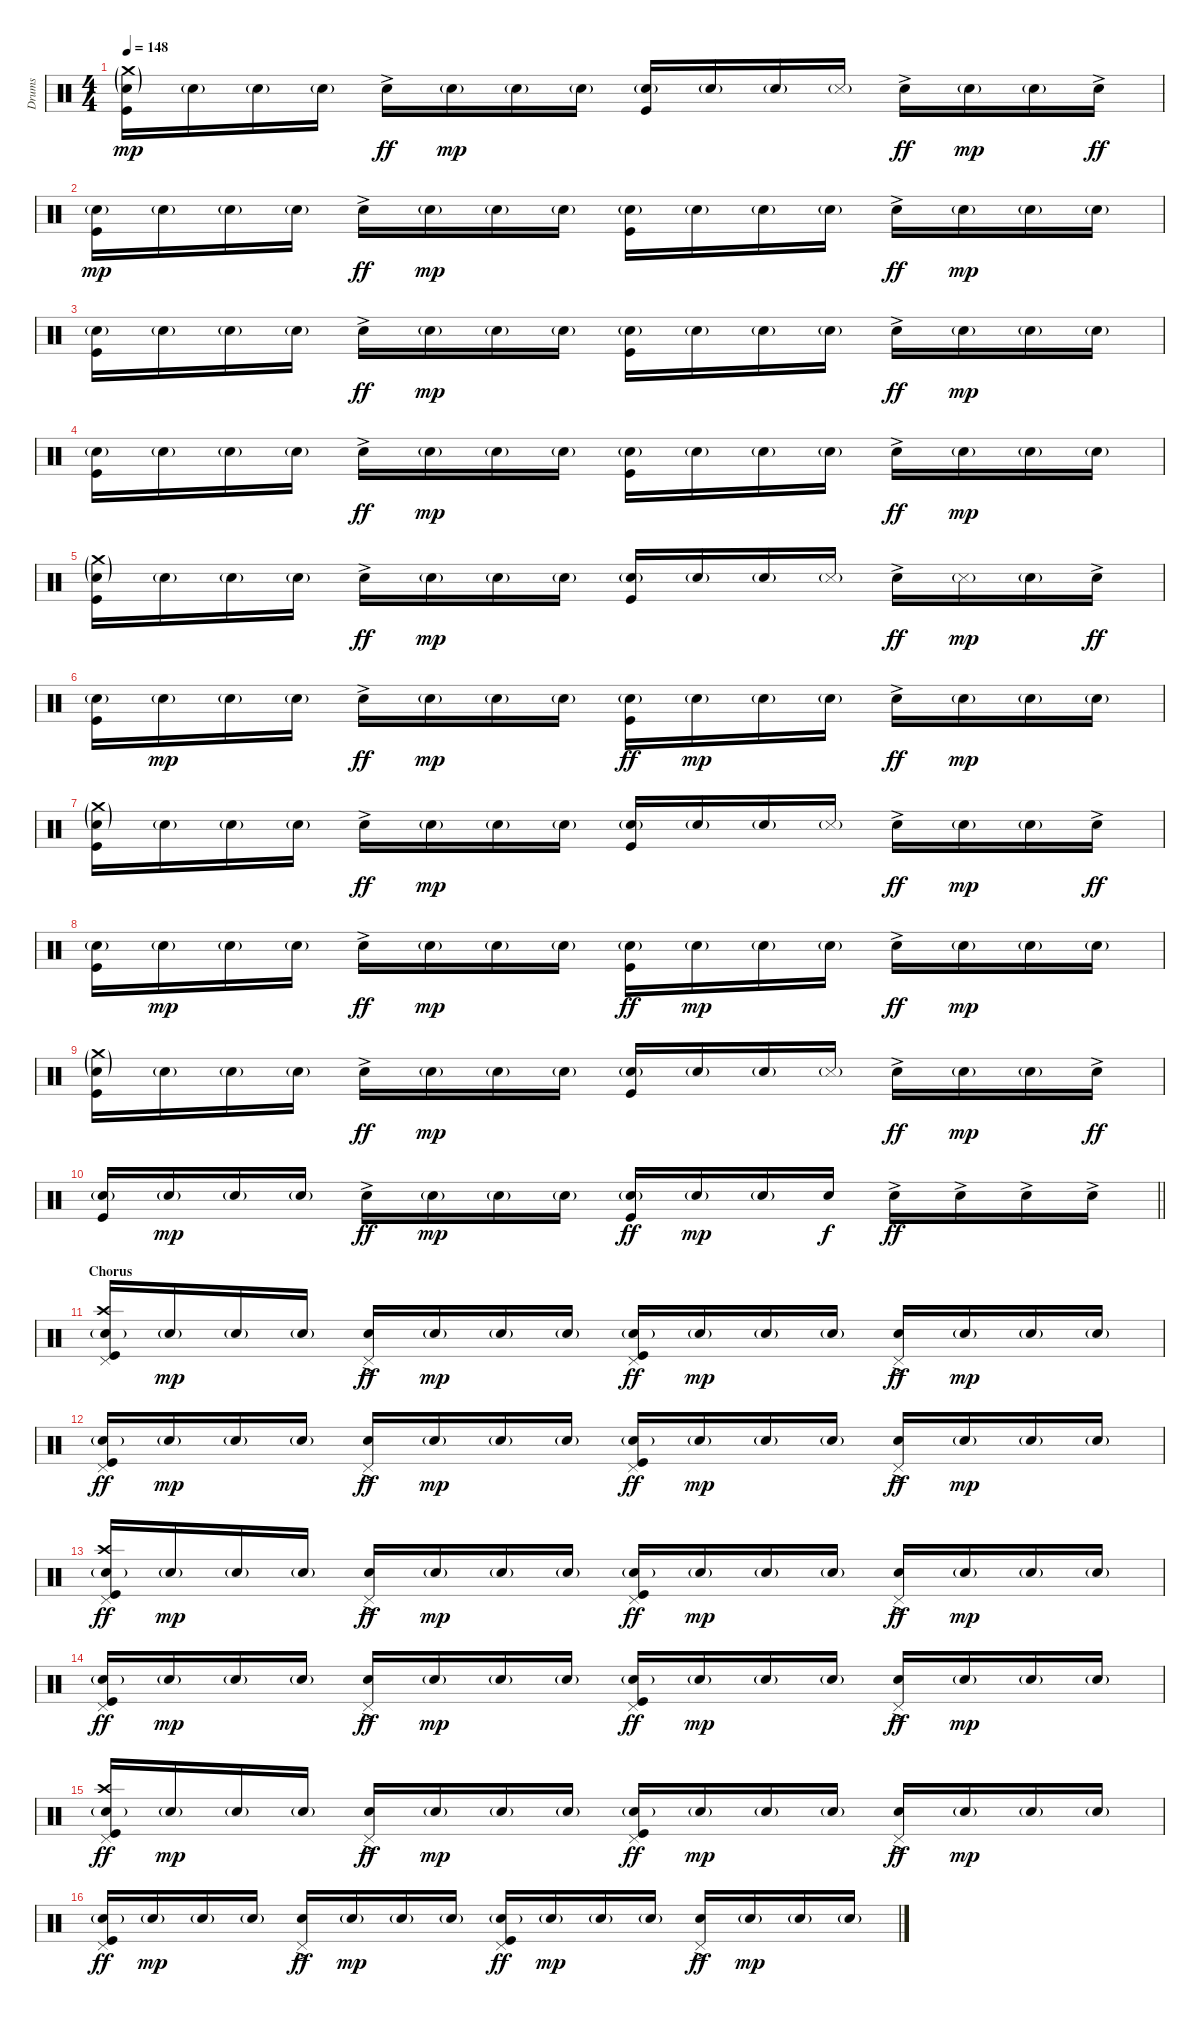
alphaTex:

\track ("Drums" "Drums") {instrument percussion}
\staff {score}
\articulation defaults
\ts (4 4)
\tempo 148
\clef neutral
\ks c
("Crash medium (hit)"{g} "Snare (hit) 2"{g} "Kick (hit)").16{dy mp beam Down} "Snare (hit) 2"{g}.16{beam Down} "Snare (hit) 2"{g}.16{beam Down} "Snare (hit) 2"{g}.16{beam Down} "Electric Snare (hit)"{ac}.16{dy ff} "Snare (hit) 2"{g}.16{dy mp} "Snare (hit) 2"{g}.16 "Snare (hit) 2"{g}.16 ("Snare (hit) 2"{g} "Kick (hit)").16 "Snare (hit) 2"{g}.16 "Snare (hit) 2"{g}.16 "Snare (side stick) 3"{g}.16 "Electric Snare (hit)"{ac}.16{dy ff} "Snare (hit) 2"{g}.16{dy mp} "Snare (hit) 2"{g}.16 "Electric Snare (hit)"{ac}.16{dy ff} |
("Snare (hit) 2"{g} "Kick (hit)").16{dy mp beam Down} "Snare (hit) 2"{g}.16{beam Down} "Snare (hit) 2"{g}.16{beam Down} "Snare (hit) 2"{g}.16{beam Down} "Electric Snare (hit)"{ac}.16{dy ff} "Snare (hit) 2"{g}.16{dy mp} "Snare (hit) 2"{g}.16 "Snare (hit) 2"{g}.16 ("Snare (hit) 2"{g} "Kick (hit)").16{beam Down} "Snare (hit) 2"{g}.16{beam Down} "Snare (hit) 2"{g}.16{beam Down} "Snare (hit) 2"{g}.16{beam Down} "Electric Snare (hit)"{ac}.16{dy ff} "Snare (hit) 2"{g}.16{dy mp} "Snare (hit) 2"{g}.16 "Snare (hit) 2"{g}.16 |
("Snare (hit) 2"{g} "Kick (hit)").16{beam Down} "Snare (hit) 2"{g}.16{beam Down} "Snare (hit) 2"{g}.16{beam Down} "Snare (hit) 2"{g}.16{beam Down} "Electric Snare (hit)"{ac}.16{dy ff} "Snare (hit) 2"{g}.16{dy mp} "Snare (hit) 2"{g}.16 "Snare (hit) 2"{g}.16 ("Snare (hit) 2"{g} "Kick (hit)").16{beam Down} "Snare (hit) 2"{g}.16{beam Down} "Snare (hit) 2"{g}.16{beam Down} "Snare (hit) 2"{g}.16{beam Down} "Electric Snare (hit)"{ac}.16{dy ff} "Snare (hit) 2"{g}.16{dy mp} "Snare (hit) 2"{g}.16 "Snare (hit) 2"{g}.16 |
("Snare (hit) 2"{g} "Kick (hit)").16{beam Down} "Snare (hit) 2"{g}.16{beam Down} "Snare (hit) 2"{g}.16{beam Down} "Snare (hit) 2"{g}.16{beam Down} "Electric Snare (hit)"{ac}.16{dy ff} "Snare (hit) 2"{g}.16{dy mp} "Snare (hit) 2"{g}.16 "Snare (hit) 2"{g}.16 ("Snare (hit) 2"{g} "Kick (hit)").16{beam Down} "Snare (hit) 2"{g}.16{beam Down} "Snare (hit) 2"{g}.16{beam Down} "Snare (hit) 2"{g}.16{beam Down} "Electric Snare (hit)"{ac}.16{dy ff} "Snare (hit) 2"{g}.16{dy mp} "Snare (hit) 2"{g}.16 "Snare (hit) 2"{g}.16 |
("Crash medium (hit)"{g} "Snare (hit) 2"{g} "Kick (hit)").16{beam Down} "Snare (hit) 2"{g}.16{beam Down} "Snare (hit) 2"{g}.16{beam Down} "Snare (hit) 2"{g}.16{beam Down} "Electric Snare (hit)"{ac}.16{dy ff} "Snare (hit) 2"{g}.16{dy mp} "Snare (hit) 2"{g}.16 "Snare (hit) 2"{g}.16 ("Snare (hit) 2"{g} "Kick (hit)").16 "Snare (hit) 2"{g}.16 "Snare (hit) 2"{g}.16 "Snare (side stick) 3"{g}.16 "Electric Snare (hit)"{ac}.16{dy ff} "Snare (side stick) 3"{g}.16{dy mp} "Snare (hit) 2"{g}.16 "Electric Snare (hit)"{ac}.16{dy ff} |
("Snare (hit) 2"{g} "Kick (hit)").16{beam Down} "Snare (hit) 2"{g}.16{dy mp beam Down} "Snare (hit) 2"{g}.16{beam Down} "Snare (hit) 2"{g}.16{beam Down} "Electric Snare (hit)"{ac}.16{dy ff} "Snare (hit) 2"{g}.16{dy mp} "Snare (hit) 2"{g}.16 "Snare (hit) 2"{g}.16 ("Snare (hit) 2"{g} "Kick (hit)").16{dy ff beam Down} "Snare (hit) 2"{g}.16{dy mp beam Down} "Snare (hit) 2"{g}.16{beam Down} "Snare (hit) 2"{g}.16{beam Down} "Electric Snare (hit)"{ac}.16{dy ff} "Snare (hit) 2"{g}.16{dy mp} "Snare (hit) 2"{g}.16 "Snare (hit) 2"{g}.16 |
("Crash medium (hit)"{g} "Snare (hit) 2"{g} "Kick (hit)").16{beam Down} "Snare (hit) 2"{g}.16{beam Down} "Snare (hit) 2"{g}.16{beam Down} "Snare (hit) 2"{g}.16{beam Down} "Electric Snare (hit)"{ac}.16{dy ff} "Snare (hit) 2"{g}.16{dy mp} "Snare (hit) 2"{g}.16 "Snare (hit) 2"{g}.16 ("Snare (hit) 2"{g} "Kick (hit)").16 "Snare (hit) 2"{g}.16 "Snare (hit) 2"{g}.16 "Snare (side stick) 3"{g}.16 "Electric Snare (hit)"{ac}.16{dy ff} "Snare (hit) 2"{g}.16{dy mp} "Snare (hit) 2"{g}.16 "Electric Snare (hit)"{ac}.16{dy ff} |
("Snare (hit) 2"{g} "Kick (hit)").16{beam Down} "Snare (hit) 2"{g}.16{dy mp beam Down} "Snare (hit) 2"{g}.16{beam Down} "Snare (hit) 2"{g}.16{beam Down} "Electric Snare (hit)"{ac}.16{dy ff} "Snare (hit) 2"{g}.16{dy mp} "Snare (hit) 2"{g}.16 "Snare (hit) 2"{g}.16 ("Snare (hit) 2"{g} "Kick (hit)").16{dy ff beam Down} "Snare (hit) 2"{g}.16{dy mp beam Down} "Snare (hit) 2"{g}.16{beam Down} "Snare (hit) 2"{g}.16{beam Down} "Electric Snare (hit)"{ac}.16{dy ff} "Snare (hit) 2"{g}.16{dy mp} "Snare (hit) 2"{g}.16 "Snare (hit) 2"{g}.16 |
("Crash medium (hit)"{g} "Snare (hit) 2"{g} "Kick (hit)").16{beam Down} "Snare (hit) 2"{g}.16{beam Down} "Snare (hit) 2"{g}.16{beam Down} "Snare (hit) 2"{g}.16{beam Down} "Electric Snare (hit)"{ac}.16{dy ff} "Snare (hit) 2"{g}.16{dy mp} "Snare (hit) 2"{g}.16 "Snare (hit) 2"{g}.16 ("Snare (hit) 2"{g} "Kick (hit)").16 "Snare (hit) 2"{g}.16 "Snare (hit) 2"{g}.16 "Snare (side stick) 3"{g}.16 "Electric Snare (hit)"{ac}.16{dy ff} "Snare (hit) 2"{g}.16{dy mp} "Snare (hit) 2"{g}.16 "Electric Snare (hit)"{ac}.16{dy ff} |
\barLineRight lightlight
("Snare (hit) 2"{g} "Kick (hit)").16 "Snare (hit) 2"{g}.16{dy mp} "Snare (hit) 2"{g}.16 "Snare (hit) 2"{g}.16 "Electric Snare (hit)"{ac}.16{dy ff} "Snare (hit) 2"{g}.16{dy mp} "Snare (hit) 2"{g}.16 "Snare (hit) 2"{g}.16 ("Snare (hit) 2"{g} "Kick (hit)").16{dy ff} "Snare (hit) 2"{g}.16{dy mp} "Snare (hit) 2"{g}.16 "Electric Snare (hit)".16{dy f} "Electric Snare (hit)"{ac}.16{dy ff} "Electric Snare (hit)"{ac}.16 "Electric Snare (hit)"{ac}.16 "Electric Snare (hit)"{ac}.16 |
\section ("" "Chorus")
("Crash high (hit)" "Pedal Hi-Hat (hit)" "Snare (hit) 2"{g} "Kick (hit)").16 "Snare (hit) 2"{g}.16{dy mp} "Snare (hit) 2"{g}.16 "Snare (hit) 2"{g}.16 ("Pedal Hi-Hat (hit)" "Electric Snare (hit)"{ac}).16{dy ff} "Snare (hit) 2"{g}.16{dy mp} "Snare (hit) 2"{g}.16 "Snare (hit) 2"{g}.16 ("Pedal Hi-Hat (hit)" "Snare (hit) 2"{g} "Kick (hit)").16{dy ff} "Snare (hit) 2"{g}.16{dy mp} "Snare (hit) 2"{g}.16 "Snare (hit) 2"{g}.16 ("Pedal Hi-Hat (hit)" "Electric Snare (hit)"{ac}).16{dy ff} "Snare (hit) 2"{g}.16{dy mp} "Snare (hit) 2"{g}.16 "Snare (hit) 2"{g}.16 |
("Pedal Hi-Hat (hit)" "Snare (hit) 2"{g} "Kick (hit)").16{dy ff} "Snare (hit) 2"{g}.16{dy mp} "Snare (hit) 2"{g}.16 "Snare (hit) 2"{g}.16 ("Pedal Hi-Hat (hit)" "Electric Snare (hit)"{ac}).16{dy ff} "Snare (hit) 2"{g}.16{dy mp} "Snare (hit) 2"{g}.16 "Snare (hit) 2"{g}.16 ("Pedal Hi-Hat (hit)" "Snare (hit) 2"{g} "Kick (hit)").16{dy ff} "Snare (hit) 2"{g}.16{dy mp} "Snare (hit) 2"{g}.16 "Snare (hit) 2"{g}.16 ("Pedal Hi-Hat (hit)" "Electric Snare (hit)"{ac}).16{dy ff} "Snare (hit) 2"{g}.16{dy mp} "Snare (hit) 2"{g}.16 "Snare (hit) 2"{g}.16 |
("Crash high (hit)" "Pedal Hi-Hat (hit)" "Snare (hit) 2"{g} "Kick (hit)").16{dy ff} "Snare (hit) 2"{g}.16{dy mp} "Snare (hit) 2"{g}.16 "Snare (hit) 2"{g}.16 ("Pedal Hi-Hat (hit)" "Electric Snare (hit)"{ac}).16{dy ff} "Snare (hit) 2"{g}.16{dy mp} "Snare (hit) 2"{g}.16 "Snare (hit) 2"{g}.16 ("Pedal Hi-Hat (hit)" "Snare (hit) 2"{g} "Kick (hit)").16{dy ff} "Snare (hit) 2"{g}.16{dy mp} "Snare (hit) 2"{g}.16 "Snare (hit) 2"{g}.16 ("Pedal Hi-Hat (hit)" "Electric Snare (hit)"{ac}).16{dy ff} "Snare (hit) 2"{g}.16{dy mp} "Snare (hit) 2"{g}.16 "Snare (hit) 2"{g}.16 |
("Pedal Hi-Hat (hit)" "Snare (hit) 2"{g} "Kick (hit)").16{dy ff} "Snare (hit) 2"{g}.16{dy mp} "Snare (hit) 2"{g}.16 "Snare (hit) 2"{g}.16 ("Pedal Hi-Hat (hit)" "Electric Snare (hit)"{ac}).16{dy ff} "Snare (hit) 2"{g}.16{dy mp} "Snare (hit) 2"{g}.16 "Snare (hit) 2"{g}.16 ("Pedal Hi-Hat (hit)" "Snare (hit) 2"{g} "Kick (hit)").16{dy ff} "Snare (hit) 2"{g}.16{dy mp} "Snare (hit) 2"{g}.16 "Snare (hit) 2"{g}.16 ("Pedal Hi-Hat (hit)" "Electric Snare (hit)"{ac}).16{dy ff} "Snare (hit) 2"{g}.16{dy mp} "Snare (hit) 2"{g}.16 "Snare (hit) 2"{g}.16 |
("Crash high (hit)" "Pedal Hi-Hat (hit)" "Snare (hit) 2"{g} "Kick (hit)").16{dy ff} "Snare (hit) 2"{g}.16{dy mp} "Snare (hit) 2"{g}.16 "Snare (hit) 2"{g}.16 ("Pedal Hi-Hat (hit)" "Electric Snare (hit)"{ac}).16{dy ff} "Snare (hit) 2"{g}.16{dy mp} "Snare (hit) 2"{g}.16 "Snare (hit) 2"{g}.16 ("Pedal Hi-Hat (hit)" "Snare (hit) 2"{g} "Kick (hit)").16{dy ff} "Snare (hit) 2"{g}.16{dy mp} "Snare (hit) 2"{g}.16 "Snare (hit) 2"{g}.16 ("Pedal Hi-Hat (hit)" "Electric Snare (hit)"{ac}).16{dy ff} "Snare (hit) 2"{g}.16{dy mp} "Snare (hit) 2"{g}.16 "Snare (hit) 2"{g}.16 |
("Pedal Hi-Hat (hit)" "Snare (hit) 2"{g} "Kick (hit)").16{dy ff} "Snare (hit) 2"{g}.16{dy mp} "Snare (hit) 2"{g}.16 "Snare (hit) 2"{g}.16 ("Pedal Hi-Hat (hit)" "Electric Snare (hit)"{ac}).16{dy ff} "Snare (hit) 2"{g}.16{dy mp} "Snare (hit) 2"{g}.16 "Snare (hit) 2"{g}.16 ("Pedal Hi-Hat (hit)" "Snare (hit) 2"{g} "Kick (hit)").16{dy ff} "Snare (hit) 2"{g}.16{dy mp} "Snare (hit) 2"{g}.16 "Snare (hit) 2"{g}.16 ("Pedal Hi-Hat (hit)" "Electric Snare (hit)"{ac}).16{dy ff} "Snare (hit) 2"{g}.16{dy mp} "Snare (hit) 2"{g}.16 "Snare (hit) 2"{g}.16
